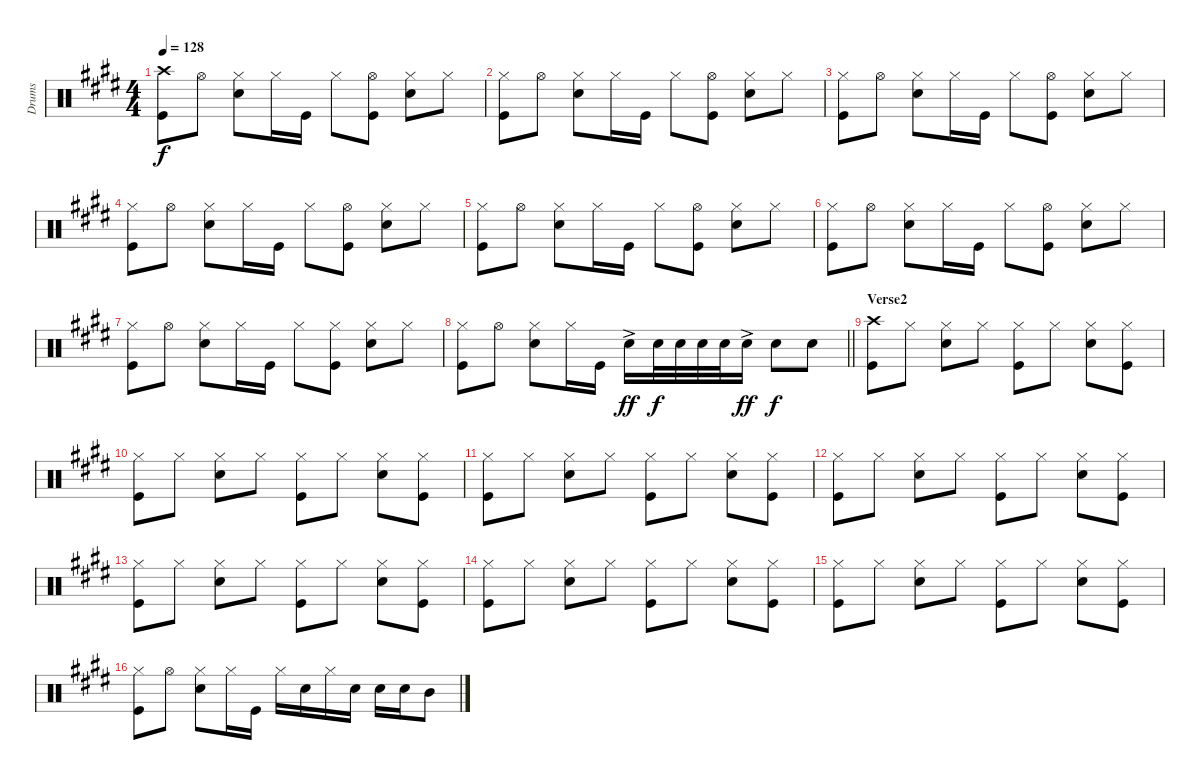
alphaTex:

\track ("Drums" "Drums") {instrument percussion}
\staff {score}
\articulation defaults
\ts (4 4)
\tempo 128
\clef neutral
\ks c#minor
("Crash high (hit)" "Kick (hit)").8{dy f} "Hi-Hat (open)".8 ("Hi-Hat (closed)" "Snare (hit) 2").8 "Hi-Hat (closed)".16 "Kick (hit)".16 "Hi-Hat (closed)".8 ("Hi-Hat (open)" "Kick (hit)").8 ("Hi-Hat (closed)" "Snare (hit) 2").8 "Hi-Hat (closed)".8 |
("Hi-Hat (closed)" "Kick (hit)").8 "Hi-Hat (open)".8 ("Hi-Hat (closed)" "Snare (hit) 2").8 "Hi-Hat (closed)".16 "Kick (hit)".16 "Hi-Hat (closed)".8 ("Hi-Hat (open)" "Kick (hit)").8 ("Hi-Hat (closed)" "Snare (hit) 2").8 "Hi-Hat (closed)".8 |
("Hi-Hat (closed)" "Kick (hit)").8 "Hi-Hat (open)".8 ("Hi-Hat (closed)" "Snare (hit) 2").8 "Hi-Hat (closed)".16 "Kick (hit)".16 "Hi-Hat (closed)".8 ("Hi-Hat (open)" "Kick (hit)").8 ("Hi-Hat (closed)" "Snare (hit) 2").8 "Hi-Hat (closed)".8 |
("Hi-Hat (closed)" "Kick (hit)").8 "Hi-Hat (open)".8 ("Hi-Hat (closed)" "Snare (hit) 2").8 "Hi-Hat (closed)".16 "Kick (hit)".16 "Hi-Hat (closed)".8 ("Hi-Hat (open)" "Kick (hit)").8 ("Hi-Hat (closed)" "Snare (hit) 2").8 "Hi-Hat (closed)".8 |
("Hi-Hat (closed)" "Kick (hit)").8 "Hi-Hat (open)".8 ("Hi-Hat (closed)" "Snare (hit) 2").8 "Hi-Hat (closed)".16 "Kick (hit)".16 "Hi-Hat (closed)".8 ("Hi-Hat (open)" "Kick (hit)").8 ("Hi-Hat (closed)" "Snare (hit) 2").8 "Hi-Hat (closed)".8 |
("Hi-Hat (closed)" "Kick (hit)").8 "Hi-Hat (open)".8 ("Hi-Hat (closed)" "Snare (hit) 2").8 "Hi-Hat (closed)".16 "Kick (hit)".16 "Hi-Hat (closed)".8 ("Hi-Hat (open)" "Kick (hit)").8 ("Hi-Hat (closed)" "Snare (hit) 2").8 "Hi-Hat (closed)".8 |
("Hi-Hat (closed)" "Kick (hit)").8 "Hi-Hat (open)".8 ("Hi-Hat (closed)" "Snare (hit) 2").8 "Hi-Hat (closed)".16 "Kick (hit)".16 "Hi-Hat (closed)".8 ("Hi-Hat (closed)" "Kick (hit)").8 ("Hi-Hat (closed)" "Snare (hit) 2").8 "Hi-Hat (closed)".8 |
\barLineRight lightlight
("Hi-Hat (closed)" "Kick (hit)").8 "Hi-Hat (open)".8 ("Hi-Hat (closed)" "Snare (hit) 2").8 "Hi-Hat (closed)".16 "Kick (hit)".16 "Snare (hit) 2"{ac}.16{dy ff} "Snare (hit) 2".32{dy f} "Snare (hit) 2".32 "Snare (hit) 2".32 "Snare (hit) 2".32 "Snare (hit) 2"{ac}.16{dy ff} "Snare (hit) 2".8{dy f} "Snare (hit) 2".8 |
\section ("" "Verse2")
("Crash high (hit)" "Kick (hit)").8 "Hi-Hat (closed)".8 ("Hi-Hat (closed)" "Snare (hit) 2").8 "Hi-Hat (closed)".8 ("Hi-Hat (closed)" "Kick (hit)").8 "Hi-Hat (closed)".8 ("Hi-Hat (closed)" "Snare (hit) 2").8 ("Hi-Hat (closed)" "Kick (hit)").8 |
("Hi-Hat (closed)" "Kick (hit)").8 "Hi-Hat (closed)".8 ("Hi-Hat (closed)" "Snare (hit) 2").8 "Hi-Hat (closed)".8 ("Hi-Hat (closed)" "Kick (hit)").8 "Hi-Hat (closed)".8 ("Hi-Hat (closed)" "Snare (hit) 2").8 ("Hi-Hat (closed)" "Kick (hit)").8 |
("Hi-Hat (closed)" "Kick (hit)").8 "Hi-Hat (closed)".8 ("Hi-Hat (closed)" "Snare (hit) 2").8 "Hi-Hat (closed)".8 ("Hi-Hat (closed)" "Kick (hit)").8 "Hi-Hat (closed)".8 ("Hi-Hat (closed)" "Snare (hit) 2").8 ("Hi-Hat (closed)" "Kick (hit)").8 |
("Hi-Hat (closed)" "Kick (hit)").8 "Hi-Hat (closed)".8 ("Hi-Hat (closed)" "Snare (hit) 2").8 "Hi-Hat (closed)".8 ("Hi-Hat (closed)" "Kick (hit)").8 "Hi-Hat (closed)".8 ("Hi-Hat (closed)" "Snare (hit) 2").8 ("Hi-Hat (closed)" "Kick (hit)").8 |
("Hi-Hat (closed)" "Kick (hit)").8 "Hi-Hat (closed)".8 ("Hi-Hat (closed)" "Snare (hit) 2").8 "Hi-Hat (closed)".8 ("Hi-Hat (closed)" "Kick (hit)").8 "Hi-Hat (closed)".8 ("Hi-Hat (closed)" "Snare (hit) 2").8 ("Hi-Hat (closed)" "Kick (hit)").8 |
("Hi-Hat (closed)" "Kick (hit)").8 "Hi-Hat (closed)".8 ("Hi-Hat (closed)" "Snare (hit) 2").8 "Hi-Hat (closed)".8 ("Hi-Hat (closed)" "Kick (hit)").8 "Hi-Hat (closed)".8 ("Hi-Hat (closed)" "Snare (hit) 2").8 ("Hi-Hat (closed)" "Kick (hit)").8 |
("Hi-Hat (closed)" "Kick (hit)").8 "Hi-Hat (closed)".8 ("Hi-Hat (closed)" "Snare (hit) 2").8 "Hi-Hat (closed)".8 ("Hi-Hat (closed)" "Kick (hit)").8 "Hi-Hat (closed)".8 ("Hi-Hat (closed)" "Snare (hit) 2").8 ("Hi-Hat (closed)" "Kick (hit)").8 |
("Kick (hit)" "Hi-Hat (closed)").8 "Hi-Hat (open)".8 ("Hi-Hat (closed)" "Snare (hit) 2").8 "Hi-Hat (closed)".16 "Kick (hit)".16 "Hi-Hat (closed)".16 "Snare (hit) 2".16 "Hi-Hat (closed)".16 "Snare (hit) 2".16 "Snare (hit) 2".16 "Snare (hit) 2".16 "Mid Tom (hit)".8
